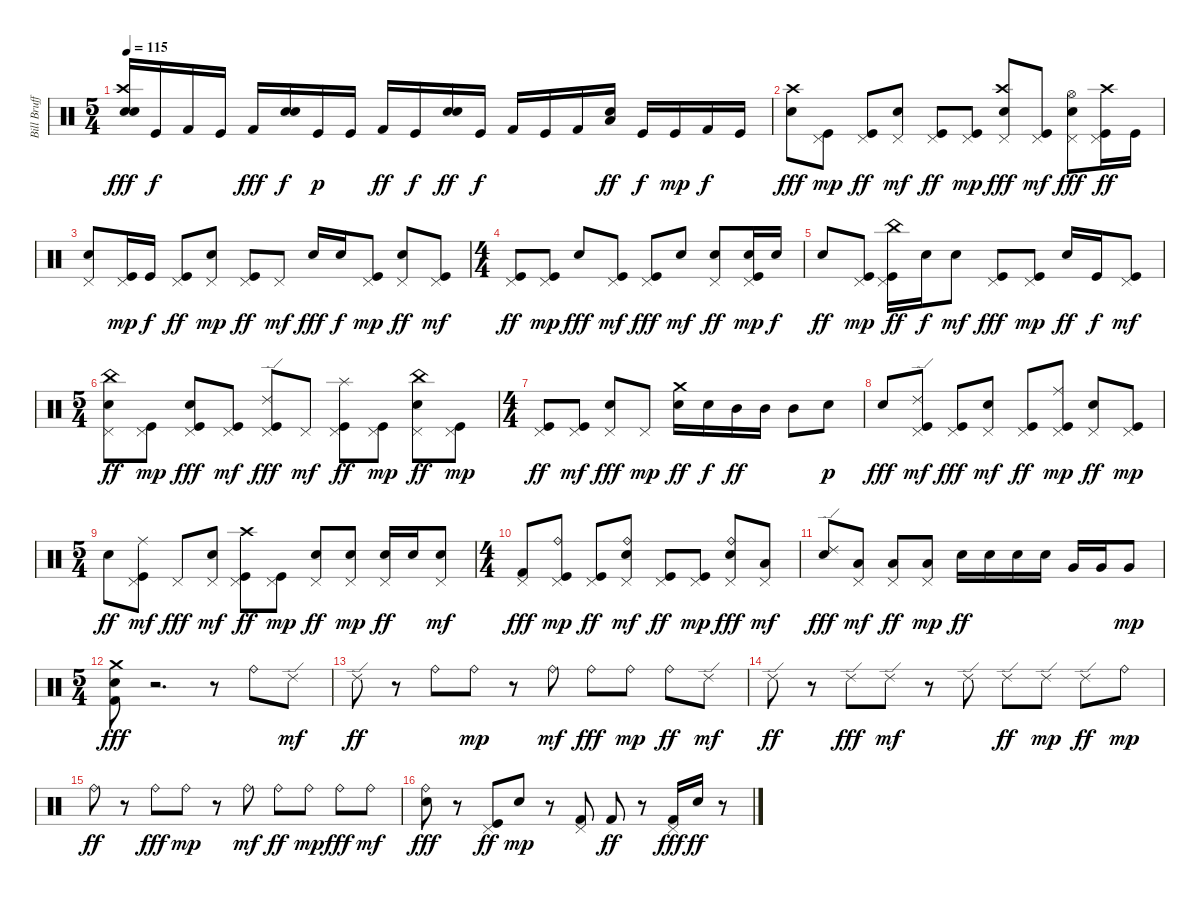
\track ("Bill Brufford Drums" "Bill Bruff") {instrument percussion}
\staff {score}
\articulation defaults
\ts (5 4)
\tempo 115
\clef neutral
\ks c
("Electric Snare (hit)" "Crash high (hit)" "Snare (hit) 2").16{dy fff} "Kick (hit)".16{dy f} "Kick (hit) 2".16 "Kick (hit)".16 "Kick (hit) 2".16{dy fff} ("Snare (hit) 2" "Electric Snare (hit)").16{dy f} "Kick (hit)".16{dy p} "Kick (hit)".16 "Kick (hit) 2".16{dy ff} "Kick (hit)".16{dy f} ("Snare (hit) 2" "Electric Snare (hit)").16{dy ff} "Kick (hit)".16{dy f} "Kick (hit) 2".16 "Kick (hit)".16 "Kick (hit) 2".16 ("Snare (hit) 2" "Low Tom (hit)").16{dy ff} "Kick (hit)".16{dy f} "Kick (hit)".16{dy mp} "Kick (hit) 2".16{dy f} "Kick (hit)".16 |
("Electric Snare (hit)" "Crash high (hit)").8{dy fff} ("Pedal Hi-Hat (hit)" "Kick (hit)").8{dy mp} ("Pedal Hi-Hat (hit)" "Kick (hit)").8{dy ff} ("Pedal Hi-Hat (hit)" "Electric Snare (hit)").8{dy mf} ("Pedal Hi-Hat (hit)" "Kick (hit)").8{dy ff} ("Pedal Hi-Hat (hit)" "Kick (hit)").8{dy mp} ("Crash high (hit)" "Pedal Hi-Hat (hit)" "Electric Snare (hit)").8{dy fff} ("Pedal Hi-Hat (hit)" "Kick (hit)").8{dy mf} ("Hi-Hat (open)" "Pedal Hi-Hat (hit)" "Electric Snare (hit)").8{dy fff} ("Crash high (hit)" "Pedal Hi-Hat (hit)" "Kick (hit)").16{dy ff} "Kick (hit)".16 |
("Pedal Hi-Hat (hit)" "Electric Snare (hit)").8 ("Kick (hit)" "Pedal Hi-Hat (hit)").16{dy mp} "Kick (hit)".16{dy f} ("Pedal Hi-Hat (hit)" "Kick (hit)").8{dy ff} ("Pedal Hi-Hat (hit)" "Electric Snare (hit)").8{dy mp} ("Pedal Hi-Hat (hit)" "Kick (hit)").8{dy ff} "Pedal Hi-Hat (hit)".8{dy mf} "Electric Snare (hit)".16{dy fff} "Electric Snare (hit)".16{dy f} ("Pedal Hi-Hat (hit)" "Kick (hit)").8{dy mp} ("Pedal Hi-Hat (hit)" "Electric Snare (hit)").8{dy ff} ("Pedal Hi-Hat (hit)" "Kick (hit)").8{dy mf} |
\ts (4 4)
("Kick (hit)" "Pedal Hi-Hat (hit)").8{dy ff} ("Pedal Hi-Hat (hit)" "Kick (hit)").8{dy mp} "Electric Snare (hit)".8{dy fff} ("Pedal Hi-Hat (hit)" "Kick (hit)").8{dy mf} ("Pedal Hi-Hat (hit)" "Kick (hit)").8{dy fff} "Electric Snare (hit)".8{dy mf} ("Pedal Hi-Hat (hit)" "Electric Snare (hit)").8{dy ff} ("Electric Snare (hit)" "Pedal Hi-Hat (hit)" "Kick (hit)").16{dy mp} "Electric Snare (hit)".16{dy f} |
"Electric Snare (hit)".8{dy ff} ("Pedal Hi-Hat (hit)" "Kick (hit)").8{dy mp} ("China (hit)" "Pedal Hi-Hat (hit)" "Kick (hit)").16{dy ff} "Electric Snare (hit)".16{dy f} "Electric Snare (hit)".8{dy mf} ("Pedal Hi-Hat (hit)" "Kick (hit)").8{dy fff} ("Pedal Hi-Hat (hit)" "Kick (hit)").8{dy mp} "Electric Snare (hit)".16{dy ff} "Kick (hit)".16{dy f} ("Pedal Hi-Hat (hit)" "Kick (hit)").8{dy mf} |
\ts (5 4)
("China (hit)" "Pedal Hi-Hat (hit)" "Electric Snare (hit)").8{dy ff} ("Pedal Hi-Hat (hit)" "Kick (hit)").8{dy mp} ("Kick (hit)" "Pedal Hi-Hat (hit)" "Electric Snare (hit)").8{dy fff} ("Pedal Hi-Hat (hit)" "Kick (hit)").8{dy mf} ("Ride (edge) 2" "Pedal Hi-Hat (hit)" "Kick (hit)").8{dy fff} "Pedal Hi-Hat (hit)".8{dy mf} ("Splash (hit)" "Pedal Hi-Hat (hit)" "Kick (hit)").8{dy ff} ("Pedal Hi-Hat (hit)" "Kick (hit)").8{dy mp} ("China (hit)" "Pedal Hi-Hat (hit)" "Electric Snare (hit)").8{dy ff} ("Pedal Hi-Hat (hit)" "Kick (hit)").8{dy mp} |
\ts (4 4)
("Pedal Hi-Hat (hit)" "Kick (hit)").8{dy ff} ("Pedal Hi-Hat (hit)" "Kick (hit)").8{dy mf} ("Pedal Hi-Hat (hit)" "Electric Snare (hit)").8{dy fff} "Pedal Hi-Hat (hit)".8{dy mp} ("Crash medium (hit)" "Electric Snare (hit)").16{dy ff} "Electric Snare (hit)".16{dy f} "Mid Tom (hit)".16{dy ff} "Mid Tom (hit)".16 "Mid Tom (hit)".8 "Electric Snare (hit)".8{dy p} |
"Snare (hit) 2".8{dy fff} ("Ride (edge) 2" "Pedal Hi-Hat (hit)" "Kick (hit)").8{dy mf} ("Pedal Hi-Hat (hit)" "Kick (hit)").8{dy fff} ("Pedal Hi-Hat (hit)" "Snare (hit) 2").8{dy mf} ("Pedal Hi-Hat (hit)" "Kick (hit)").8{dy ff} ("Kick (hit)" "Ride (middle)" "Pedal Hi-Hat (hit)").8{dy mp} ("Pedal Hi-Hat (hit)" "Snare (hit) 2").8{dy ff} ("Pedal Hi-Hat (hit)" "Kick (hit)").8{dy mp} |
\ts (5 4)
"Snare (hit) 2".8{dy ff} ("Ride (middle)" "Pedal Hi-Hat (hit)" "Kick (hit)").8{dy mf} "Pedal Hi-Hat (hit)".8{dy fff} ("Pedal Hi-Hat (hit)" "Snare (hit) 2").8{dy mf} ("Crash high (hit)" "Pedal Hi-Hat (hit)" "Kick (hit)").8{dy ff} ("Pedal Hi-Hat (hit)" "Kick (hit)").8{dy mp} ("Electric Snare (hit)" "Pedal Hi-Hat (hit)").8{dy ff} ("Electric Snare (hit)" "Pedal Hi-Hat (hit)").8{dy mp} ("Electric Snare (hit)" "Pedal Hi-Hat (hit)").16{dy ff} "Electric Snare (hit)".16 ("Electric Snare (hit)" "Pedal Hi-Hat (hit)").8{dy mf} |
\ts (4 4)
("Kick (hit) 2" "Pedal Hi-Hat (hit)").8{dy fff} ("Kick (hit)" "Ride (bell)" "Pedal Hi-Hat (hit)").8{dy mp} ("Pedal Hi-Hat (hit)" "Kick (hit)").8{dy ff} ("Pedal Hi-Hat (hit)" "Ride (bell)" "Electric Snare (hit)").8{dy mf} ("Pedal Hi-Hat (hit)" "Kick (hit)").8{dy ff} ("Pedal Hi-Hat (hit)" "Kick (hit)").8{dy mp} ("Pedal Hi-Hat (hit)" "Ride (bell)" "Electric Snare (hit)").8{dy fff} ("Pedal Hi-Hat (hit)" "Low Floor Tom (hit)").8{dy mf} |
("Ride (edge) 2" "Electric Snare (hit)").8{dy fff} ("Pedal Hi-Hat (hit)" "Low Floor Tom (hit)").8{dy mf} ("Pedal Hi-Hat (hit)" "Low Floor Tom (hit)").8{dy ff} ("Pedal Hi-Hat (hit)" "Low Floor Tom (hit)").8{dy mp} "Electric Snare (hit)".16{dy ff} "Electric Snare (hit)".16 "Electric Snare (hit)".16 "Electric Snare (hit)".16 "Very Low Tom (hit)".16 "Very Low Tom (hit)".16 "Very Low Tom (hit)".8{dy mp} |
\ts (5 4)
("Crash medium (hit)" "Kick (hit) 2" "Electric Snare (hit)").8{dy fff} r.2{d} r.8 "Ride (bell)".8 "Ride (edge) 2".8{dy mf} |
"Ride (edge) 2".8{dy ff} r.8 "Ride (bell)".8 "Ride (bell)".8{dy mp} r.8 "Ride (bell)".8{dy mf} "Ride (bell)".8{dy fff} "Ride (bell)".8{dy mp} "Ride (bell)".8{dy ff} "Ride (edge) 2".8{dy mf} |
"Ride (edge) 2".8{dy ff} r.8 "Ride (edge) 2".8{dy fff} "Ride (edge) 2".8{dy mf} r.8 "Ride (edge) 2".8 "Ride (edge) 2".8{dy ff} "Ride (edge) 2".8{dy mp} "Ride (edge) 2".8{dy ff} "Ride (bell)".8{dy mp} |
"Ride (bell)".8{dy ff} r.8 "Ride (bell)".8{dy fff} "Ride (bell)".8{dy mp} r.8 "Ride (bell)".8{dy mf} "Ride (bell)".8{dy ff} "Ride (bell)".8{dy mp} "Ride (bell)".8{dy fff} "Ride (bell)".8{dy mf} |
("Electric Snare (hit)" "Ride (bell)").8{dy fff} r.8 ("Pedal Hi-Hat (hit)" "Kick (hit)").8{dy ff} "Electric Snare (hit)".8{dy mp} r.8 ("Pedal Hi-Hat (hit)" "Kick (hit) 2").8 "Kick (hit) 2".8{dy ff} r.8 ("Pedal Hi-Hat (hit)" "Kick (hit) 2").16{dy fff} "Electric Snare (hit)".16{dy ff} r.8
